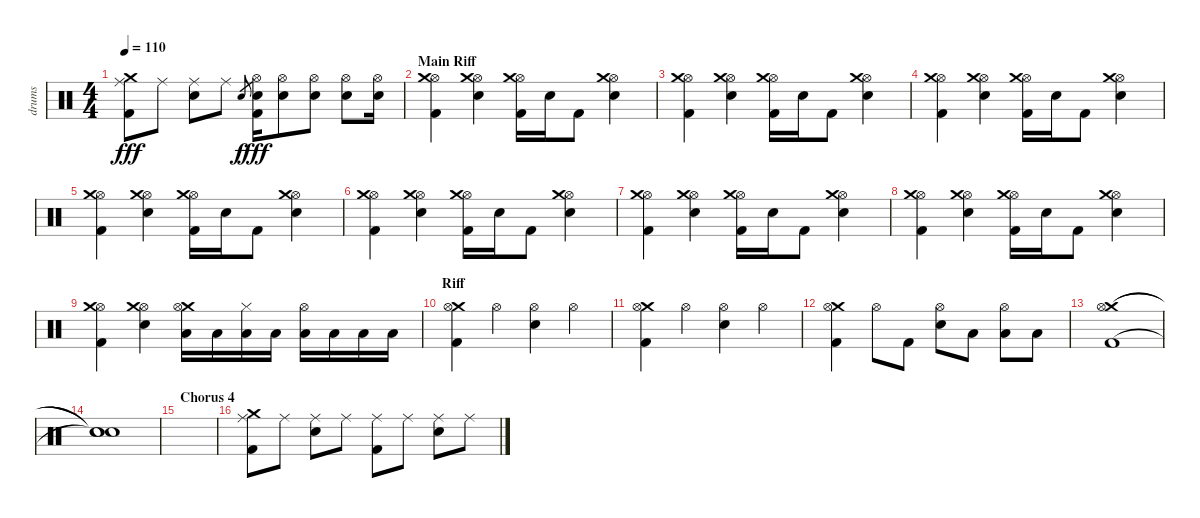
\track ("drums" "drums") {instrument percussion}
\staff {score}
\articulation defaults
\ts (4 4)
\tempo 110
\clef neutral
\ks c
("Kick (hit) 2" "Ride (middle)" "Crash medium (hit)").8{dy fff} "Ride (middle)".8 ("Electric Snare (hit)" "Ride (middle)").8 "Ride (middle)".8 "Electric Snare (hit)".8{gr dy f} ("Kick (hit) 2" "Electric Snare (hit)" "Hi-Hat (open)").16{dy fff} ("Electric Snare (hit)" "Hi-Hat (open)").8 ("Electric Snare (hit)" "Hi-Hat (open)").8 ("Electric Snare (hit)" "Hi-Hat (open)").8 ("Electric Snare (hit)" "Hi-Hat (open)").16 |
\section ("" "Main Riff")
("Kick (hit) 2" "Hi-Hat (open)" "Crash medium (hit)").4 ("Electric Snare (hit)" "Hi-Hat (open)" "Crash medium (hit)").4 ("Kick (hit) 2" "Hi-Hat (open)" "Crash medium (hit)").16 "Electric Snare (hit)".16 "Kick (hit) 2".8 ("Electric Snare (hit)" "Hi-Hat (open)" "Crash medium (hit)").4 |
("Kick (hit) 2" "Hi-Hat (open)" "Crash medium (hit)").4 ("Electric Snare (hit)" "Hi-Hat (open)" "Crash medium (hit)").4 ("Kick (hit) 2" "Hi-Hat (open)" "Crash medium (hit)").16 "Electric Snare (hit)".16 "Kick (hit) 2".8 ("Electric Snare (hit)" "Hi-Hat (open)" "Crash medium (hit)").4 |
("Kick (hit) 2" "Hi-Hat (open)" "Crash medium (hit)").4 ("Electric Snare (hit)" "Hi-Hat (open)" "Crash medium (hit)").4 ("Kick (hit) 2" "Hi-Hat (open)" "Crash medium (hit)").16 "Electric Snare (hit)".16 "Kick (hit) 2".8 ("Electric Snare (hit)" "Hi-Hat (open)" "Crash medium (hit)").4 |
("Kick (hit) 2" "Hi-Hat (open)" "Crash medium (hit)").4 ("Electric Snare (hit)" "Hi-Hat (open)" "Crash medium (hit)").4 ("Kick (hit) 2" "Hi-Hat (open)" "Crash medium (hit)").16 "Electric Snare (hit)".16 "Kick (hit) 2".8 ("Electric Snare (hit)" "Hi-Hat (open)" "Crash medium (hit)").4 |
("Kick (hit) 2" "Hi-Hat (open)" "Crash medium (hit)").4 ("Electric Snare (hit)" "Hi-Hat (open)" "Crash medium (hit)").4 ("Kick (hit) 2" "Hi-Hat (open)" "Crash medium (hit)").16 "Electric Snare (hit)".16 "Kick (hit) 2".8 ("Electric Snare (hit)" "Hi-Hat (open)" "Crash medium (hit)").4 |
("Kick (hit) 2" "Hi-Hat (open)" "Crash medium (hit)").4 ("Electric Snare (hit)" "Hi-Hat (open)" "Crash medium (hit)").4 ("Kick (hit) 2" "Hi-Hat (open)" "Crash medium (hit)").16 "Electric Snare (hit)".16 "Kick (hit) 2".8 ("Electric Snare (hit)" "Hi-Hat (open)" "Crash medium (hit)").4 |
("Kick (hit) 2" "Hi-Hat (open)" "Crash medium (hit)").4 ("Electric Snare (hit)" "Hi-Hat (open)" "Crash medium (hit)").4 ("Kick (hit) 2" "Hi-Hat (open)" "Crash medium (hit)").16 "Electric Snare (hit)".16 "Kick (hit) 2".8 ("Electric Snare (hit)" "Hi-Hat (open)" "Crash medium (hit)").4 |
("Kick (hit) 2" "Hi-Hat (open)" "Crash medium (hit)").4 ("Electric Snare (hit)" "Hi-Hat (open)" "Crash medium (hit)").4 ("Crash medium (hit)" "Hi-Hat (open)" "Low Floor Tom (hit)").16 "Low Floor Tom (hit)".16 ("Hi-Hat (closed)" "Low Floor Tom (hit)").16 "Low Floor Tom (hit)".16 ("Hi-Hat (open)" "Low Floor Tom (hit)").16 "Low Floor Tom (hit)".16 "Low Floor Tom (hit)".16 "Low Floor Tom (hit)".16 |
\section ("" "Riff")
("Crash medium (hit)" "Hi-Hat (open)" "Kick (hit) 2").4 "Hi-Hat (open)".4 ("Electric Snare (hit)" "Hi-Hat (open)").4 "Hi-Hat (open)".4 |
("Crash medium (hit)" "Hi-Hat (open)" "Kick (hit) 2").4 "Hi-Hat (open)".4 ("Electric Snare (hit)" "Hi-Hat (open)").4 "Hi-Hat (open)".4 |
("Crash medium (hit)" "Hi-Hat (open)" "Kick (hit) 2").4 "Hi-Hat (open)".8 "Kick (hit) 2".8 ("Electric Snare (hit)" "Hi-Hat (open)").8 "Low Tom (hit)".8 ("Hi-Hat (open)" "Low Floor Tom (hit)").8 "Low Floor Tom (hit)".8 |
("Crash medium (hit)" "Hi-Hat (open)" "Kick (hit) 2").1 |
("Snare (hit)"{t} "Snare (hit)"{t} "Snare (hit)"{t}).1 |
\section ("" "Chorus 4")
|
("Kick (hit) 2" "Ride (middle)" "Crash medium (hit)").8 "Ride (middle)".8 ("Electric Snare (hit)" "Ride (middle)").8 "Ride (middle)".8 ("Kick (hit) 2" "Ride (middle)").8 "Ride (middle)".8 ("Electric Snare (hit)" "Ride (middle)").8 "Ride (middle)".8
